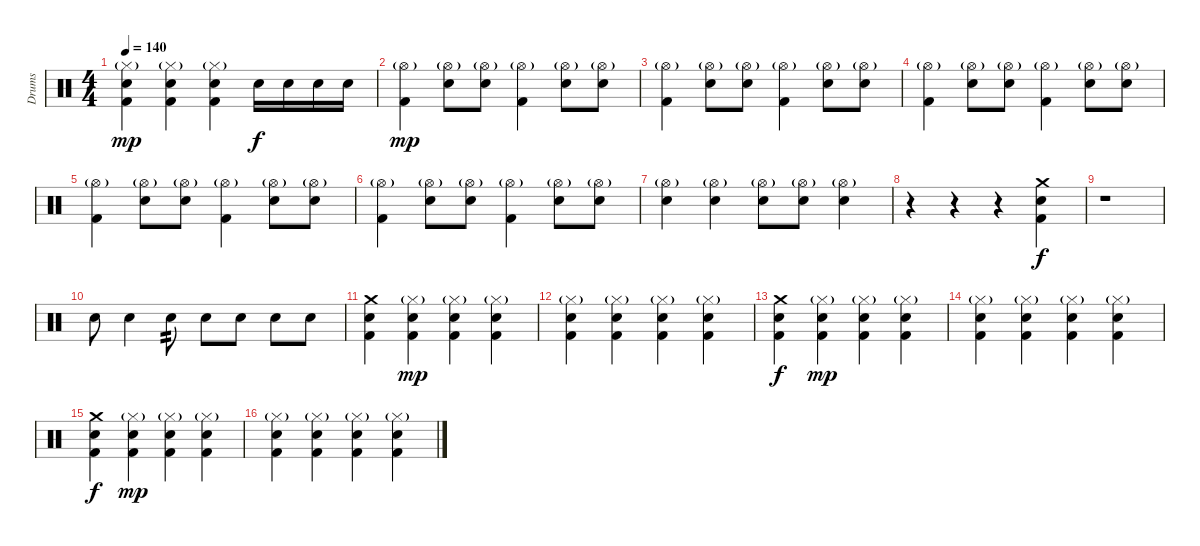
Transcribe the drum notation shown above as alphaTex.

\track ("Drums" "Drums") {instrument percussion}
\staff {score}
\articulation defaults
\ts (4 4)
\tempo 140
\clef neutral
\ks c
("Hi-Hat (closed)"{g} "Electric Snare (hit)" "Kick (hit) 2").4{dy mp} ("Hi-Hat (closed)"{g} "Electric Snare (hit)" "Kick (hit) 2").4 ("Hi-Hat (closed)"{g} "Electric Snare (hit)" "Kick (hit) 2").4 "Electric Snare (hit)".16{dy f} "Electric Snare (hit)".16 "Electric Snare (hit)".16 "Electric Snare (hit)".16 |
("Hi-Hat (open)"{g} "Kick (hit) 2").4{dy mp} ("Hi-Hat (open)"{g} "Electric Snare (hit)").8 ("Hi-Hat (open)"{g} "Electric Snare (hit)").8 ("Hi-Hat (open)"{g} "Kick (hit) 2").4 ("Hi-Hat (open)"{g} "Electric Snare (hit)").8 ("Hi-Hat (open)"{g} "Electric Snare (hit)").8 |
("Hi-Hat (open)"{g} "Kick (hit) 2").4 ("Hi-Hat (open)"{g} "Electric Snare (hit)").8 ("Hi-Hat (open)"{g} "Electric Snare (hit)").8 ("Hi-Hat (open)"{g} "Kick (hit) 2").4 ("Hi-Hat (open)"{g} "Electric Snare (hit)").8 ("Hi-Hat (open)"{g} "Electric Snare (hit)").8 |
("Hi-Hat (open)"{g} "Kick (hit) 2").4 ("Hi-Hat (open)"{g} "Electric Snare (hit)").8 ("Hi-Hat (open)"{g} "Electric Snare (hit)").8 ("Hi-Hat (open)"{g} "Kick (hit) 2").4 ("Hi-Hat (open)"{g} "Electric Snare (hit)").8 ("Hi-Hat (open)"{g} "Electric Snare (hit)").8 |
("Hi-Hat (open)"{g} "Kick (hit) 2").4 ("Hi-Hat (open)"{g} "Electric Snare (hit)").8 ("Hi-Hat (open)"{g} "Electric Snare (hit)").8 ("Hi-Hat (open)"{g} "Kick (hit) 2").4 ("Hi-Hat (open)"{g} "Electric Snare (hit)").8 ("Hi-Hat (open)"{g} "Electric Snare (hit)").8 |
("Hi-Hat (open)"{g} "Kick (hit) 2").4 ("Hi-Hat (open)"{g} "Electric Snare (hit)").8 ("Hi-Hat (open)"{g} "Electric Snare (hit)").8 ("Hi-Hat (open)"{g} "Kick (hit) 2").4 ("Hi-Hat (open)"{g} "Electric Snare (hit)").8 ("Hi-Hat (open)"{g} "Electric Snare (hit)").8 |
("Hi-Hat (open)"{g} "Electric Snare (hit)").4 ("Hi-Hat (open)"{g} "Electric Snare (hit)").4 ("Hi-Hat (open)"{g} "Electric Snare (hit)").8 ("Hi-Hat (open)"{g} "Electric Snare (hit)").8 ("Hi-Hat (open)"{g} "Electric Snare (hit)").4 |
r.4 r.4 r.4 ("Crash medium (hit)" "Electric Snare (hit)" "Kick (hit) 2").4{dy f} |
r.1 |
"Electric Snare (hit)".8 "Snare (hit) 2".4 "Electric Snare (hit)".8{tp 2} "Electric Snare (hit)".8 "Electric Snare (hit)".8 "Snare (hit) 2".8 "Snare (hit) 2".8 |
("Crash medium (hit)" "Electric Snare (hit)" "Kick (hit) 2").4 ("Hi-Hat (closed)"{g} "Electric Snare (hit)" "Kick (hit) 2").4{dy mp} ("Hi-Hat (closed)"{g} "Electric Snare (hit)" "Kick (hit) 2").4 ("Hi-Hat (closed)"{g} "Electric Snare (hit)" "Kick (hit) 2").4 |
("Hi-Hat (closed)"{g} "Electric Snare (hit)" "Kick (hit) 2").4 ("Hi-Hat (closed)"{g} "Electric Snare (hit)" "Kick (hit) 2").4 ("Hi-Hat (closed)"{g} "Electric Snare (hit)" "Kick (hit) 2").4 ("Hi-Hat (closed)"{g} "Electric Snare (hit)" "Kick (hit) 2").4 |
("Crash medium (hit)" "Electric Snare (hit)" "Kick (hit) 2").4{dy f} ("Hi-Hat (closed)"{g} "Electric Snare (hit)" "Kick (hit) 2").4{dy mp} ("Hi-Hat (closed)"{g} "Electric Snare (hit)" "Kick (hit) 2").4 ("Hi-Hat (closed)"{g} "Electric Snare (hit)" "Kick (hit) 2").4 |
("Hi-Hat (closed)"{g} "Electric Snare (hit)" "Kick (hit) 2").4 ("Hi-Hat (closed)"{g} "Electric Snare (hit)" "Kick (hit) 2").4 ("Hi-Hat (closed)"{g} "Electric Snare (hit)" "Kick (hit) 2").4 ("Hi-Hat (closed)"{g} "Electric Snare (hit)" "Kick (hit) 2").4 |
("Crash medium (hit)" "Electric Snare (hit)" "Kick (hit) 2").4{dy f} ("Hi-Hat (closed)"{g} "Electric Snare (hit)" "Kick (hit) 2").4{dy mp} ("Hi-Hat (closed)"{g} "Electric Snare (hit)" "Kick (hit) 2").4 ("Hi-Hat (closed)"{g} "Electric Snare (hit)" "Kick (hit) 2").4 |
("Hi-Hat (closed)"{g} "Electric Snare (hit)" "Kick (hit) 2").4 ("Hi-Hat (closed)"{g} "Electric Snare (hit)" "Kick (hit) 2").4 ("Hi-Hat (closed)"{g} "Electric Snare (hit)" "Kick (hit) 2").4 ("Hi-Hat (closed)"{g} "Electric Snare (hit)" "Kick (hit) 2").4
